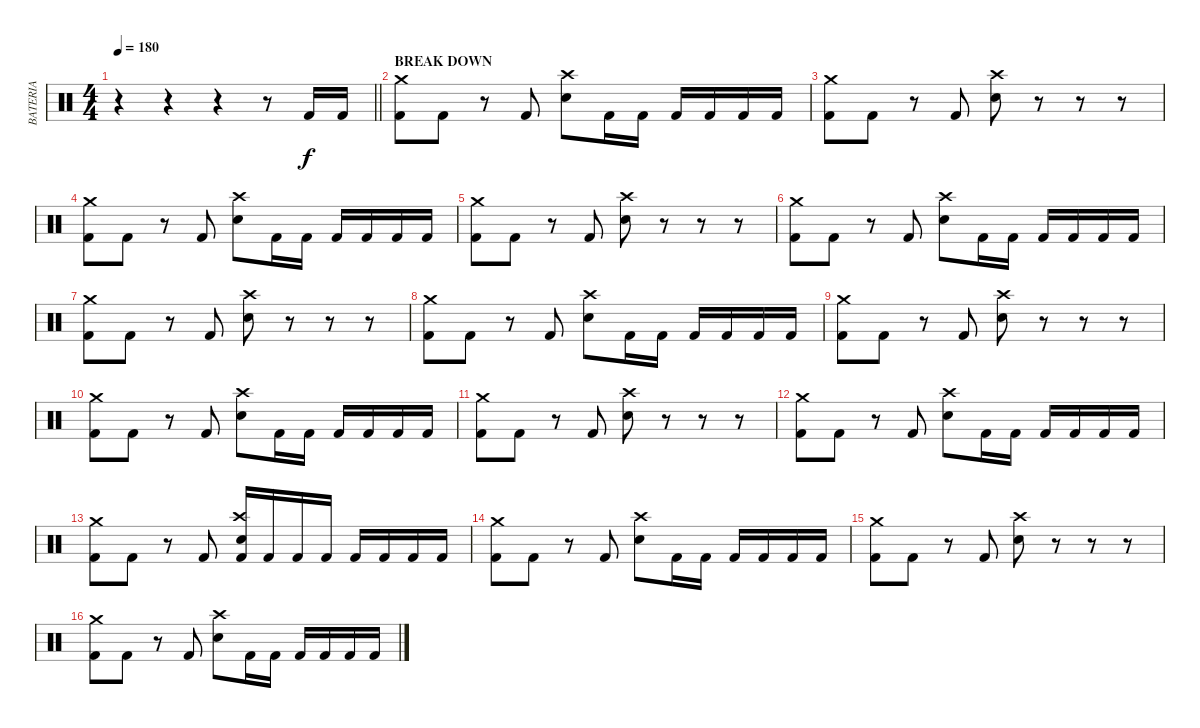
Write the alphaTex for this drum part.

\track ("BATERIA" "BATERIA") {instrument percussion}
\staff {score}
\articulation defaults
\ts (4 4)
\tempo 180
\clef neutral
\barLineRight lightlight
\ks c
r.4{dy f} r.4 r.4 r.8 "Kick (hit) 2".16 "Kick (hit) 2".16 |
\section ("" "BREAK DOWN")
("Crash medium (hit)" "Kick (hit) 2").8 "Kick (hit) 2".8 r.8 "Kick (hit) 2".8 ("Crash high (hit)" "Electric Snare (hit)").8 "Kick (hit) 2".16 "Kick (hit) 2".16 "Kick (hit) 2".16 "Kick (hit) 2".16 "Kick (hit) 2".16 "Kick (hit) 2".16 |
("Crash medium (hit)" "Kick (hit) 2").8 "Kick (hit) 2".8 r.8 "Kick (hit) 2".8 ("Crash high (hit)" "Electric Snare (hit)").8 r.8 r.8 r.8 |
("Crash medium (hit)" "Kick (hit) 2").8 "Kick (hit) 2".8 r.8 "Kick (hit) 2".8 ("Crash high (hit)" "Electric Snare (hit)").8 "Kick (hit) 2".16 "Kick (hit) 2".16 "Kick (hit) 2".16 "Kick (hit) 2".16 "Kick (hit) 2".16 "Kick (hit) 2".16 |
("Crash medium (hit)" "Kick (hit) 2").8 "Kick (hit) 2".8 r.8 "Kick (hit) 2".8 ("Crash high (hit)" "Electric Snare (hit)").8 r.8 r.8 r.8 |
("Crash medium (hit)" "Kick (hit) 2").8 "Kick (hit) 2".8 r.8 "Kick (hit) 2".8 ("Crash high (hit)" "Electric Snare (hit)").8 "Kick (hit) 2".16 "Kick (hit) 2".16 "Kick (hit) 2".16 "Kick (hit) 2".16 "Kick (hit) 2".16 "Kick (hit) 2".16 |
("Crash medium (hit)" "Kick (hit) 2").8 "Kick (hit) 2".8 r.8 "Kick (hit) 2".8 ("Crash high (hit)" "Electric Snare (hit)").8 r.8 r.8 r.8 |
("Crash medium (hit)" "Kick (hit) 2").8 "Kick (hit) 2".8 r.8 "Kick (hit) 2".8 ("Crash high (hit)" "Electric Snare (hit)").8 "Kick (hit) 2".16 "Kick (hit) 2".16 "Kick (hit) 2".16 "Kick (hit) 2".16 "Kick (hit) 2".16 "Kick (hit) 2".16 |
("Crash medium (hit)" "Kick (hit) 2").8 "Kick (hit) 2".8 r.8 "Kick (hit) 2".8 ("Crash high (hit)" "Electric Snare (hit)").8 r.8 r.8 r.8 |
("Crash medium (hit)" "Kick (hit) 2").8 "Kick (hit) 2".8 r.8 "Kick (hit) 2".8 ("Crash high (hit)" "Electric Snare (hit)").8 "Kick (hit) 2".16 "Kick (hit) 2".16 "Kick (hit) 2".16 "Kick (hit) 2".16 "Kick (hit) 2".16 "Kick (hit) 2".16 |
("Crash medium (hit)" "Kick (hit) 2").8 "Kick (hit) 2".8 r.8 "Kick (hit) 2".8 ("Crash high (hit)" "Electric Snare (hit)").8 r.8 r.8 r.8 |
("Crash medium (hit)" "Kick (hit) 2").8 "Kick (hit) 2".8 r.8 "Kick (hit) 2".8 ("Crash high (hit)" "Electric Snare (hit)").8 "Kick (hit) 2".16 "Kick (hit) 2".16 "Kick (hit) 2".16 "Kick (hit) 2".16 "Kick (hit) 2".16 "Kick (hit) 2".16 |
("Crash medium (hit)" "Kick (hit) 2").8 "Kick (hit) 2".8 r.8 "Kick (hit) 2".8 ("Crash high (hit)" "Electric Snare (hit)" "Kick (hit) 2").16 "Kick (hit) 2".16 "Kick (hit) 2".16 "Kick (hit) 2".16 "Kick (hit) 2".16 "Kick (hit) 2".16 "Kick (hit) 2".16 "Kick (hit) 2".16 |
("Crash medium (hit)" "Kick (hit) 2").8 "Kick (hit) 2".8 r.8 "Kick (hit) 2".8 ("Crash high (hit)" "Electric Snare (hit)").8 "Kick (hit) 2".16 "Kick (hit) 2".16 "Kick (hit) 2".16 "Kick (hit) 2".16 "Kick (hit) 2".16 "Kick (hit) 2".16 |
("Crash medium (hit)" "Kick (hit) 2").8 "Kick (hit) 2".8 r.8 "Kick (hit) 2".8 ("Crash high (hit)" "Electric Snare (hit)").8 r.8 r.8 r.8 |
("Crash medium (hit)" "Kick (hit) 2").8 "Kick (hit) 2".8 r.8 "Kick (hit) 2".8 ("Crash high (hit)" "Electric Snare (hit)").8 "Kick (hit) 2".16 "Kick (hit) 2".16 "Kick (hit) 2".16 "Kick (hit) 2".16 "Kick (hit) 2".16 "Kick (hit) 2".16
